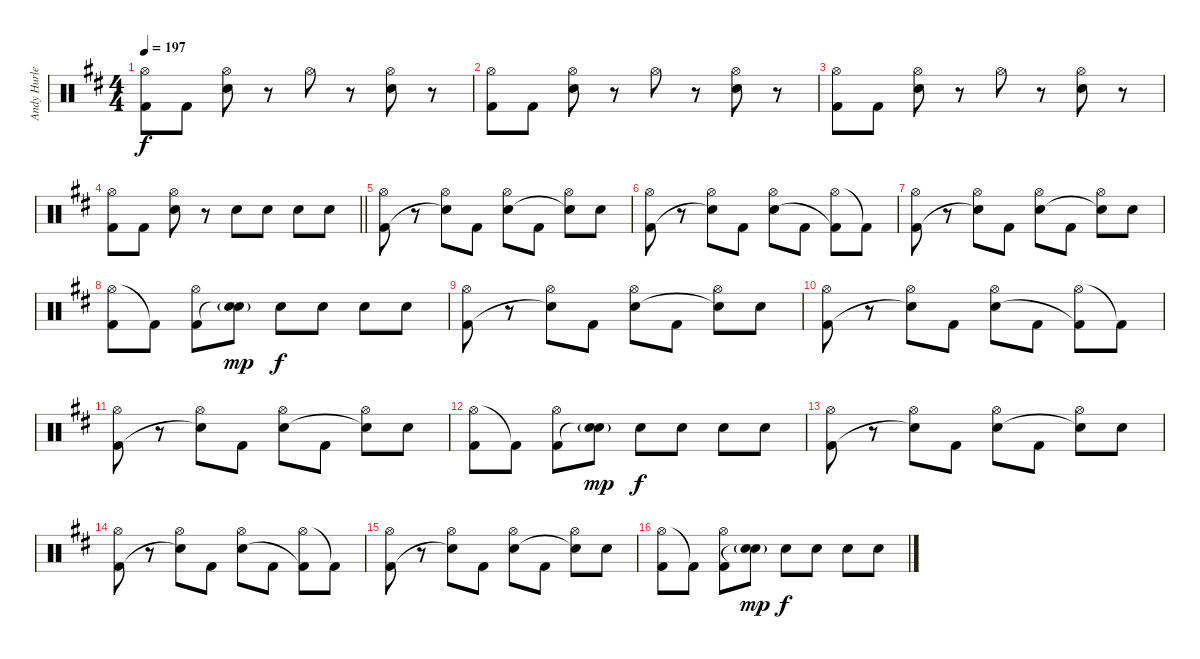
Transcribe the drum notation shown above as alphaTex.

\track ("Andy Hurley (Drums)" "Andy Hurle") {instrument percussion}
\staff {score}
\articulation defaults
\ts (4 4)
\tempo 197
\clef neutral
\ks d
("Hi-Hat (open)" "Kick (hit) 2").8{dy f} "Kick (hit) 2".8 ("Hi-Hat (open)" "Electric Snare (hit)").8 r.8 "Hi-Hat (open)".8 r.8 ("Hi-Hat (open)" "Electric Snare (hit)").8 r.8 |
("Hi-Hat (open)" "Kick (hit) 2").8 "Kick (hit) 2".8 ("Hi-Hat (open)" "Electric Snare (hit)").8 r.8 "Hi-Hat (open)".8 r.8 ("Hi-Hat (open)" "Electric Snare (hit)").8 r.8 |
("Hi-Hat (open)" "Kick (hit) 2").8 "Kick (hit) 2".8 ("Hi-Hat (open)" "Electric Snare (hit)").8 r.8 "Hi-Hat (open)".8 r.8 ("Hi-Hat (open)" "Electric Snare (hit)").8 r.8 |
\barLineRight lightlight
("Hi-Hat (open)" "Kick (hit) 2").8 "Kick (hit) 2".8 ("Hi-Hat (open)" "Electric Snare (hit)").8 r.8 "Electric Snare (hit)".8 "Electric Snare (hit)".8 "Electric Snare (hit)".8 "Electric Snare (hit)".8 |
("Hi-Hat (open)" "Kick (hit) 2").8 r.8 ("Hi-Hat (open)" "Snare (hit)"{t}).8 "Kick (hit) 2".8 ("Hi-Hat (open)" "Electric Snare (hit)").8 "Kick (hit) 2".8 ("Hi-Hat (open)" "Snare (hit)"{t}).8 "Electric Snare (hit)".8 |
("Hi-Hat (open)" "Kick (hit) 2").8 r.8 ("Hi-Hat (open)" "Snare (hit)"{t}).8 "Kick (hit) 2".8 ("Hi-Hat (open)" "Electric Snare (hit)").8 "Kick (hit) 2".8 ("Hi-Hat (open)" "Kick (hit) 2"{t}).8 "Kick (hit) 2"{t}.8 |
("Hi-Hat (open)" "Kick (hit) 2").8 r.8 ("Hi-Hat (open)" "Snare (hit)"{t}).8 "Kick (hit) 2".8 ("Hi-Hat (open)" "Electric Snare (hit)").8 "Kick (hit) 2".8 ("Hi-Hat (open)" "Snare (hit)"{t}).8 "Electric Snare (hit)".8 |
("Hi-Hat (open)" "Kick (hit) 2").8 "Kick (hit) 2"{t}.8 ("Hi-Hat (open)" "Kick (hit) 2").8 ("Electric Snare (hit)"{g} "Snare (hit)"{t}).8{dy mp} "Electric Snare (hit)".8{dy f} "Electric Snare (hit)".8 "Electric Snare (hit)".8 "Electric Snare (hit)".8 |
("Hi-Hat (open)" "Kick (hit) 2").8 r.8 ("Hi-Hat (open)" "Snare (hit)"{t}).8 "Kick (hit) 2".8 ("Hi-Hat (open)" "Electric Snare (hit)").8 "Kick (hit) 2".8 ("Hi-Hat (open)" "Snare (hit)"{t}).8 "Electric Snare (hit)".8 |
("Hi-Hat (open)" "Kick (hit) 2").8 r.8 ("Hi-Hat (open)" "Snare (hit)"{t}).8 "Kick (hit) 2".8 ("Hi-Hat (open)" "Electric Snare (hit)").8 "Kick (hit) 2".8 ("Hi-Hat (open)" "Kick (hit) 2"{t}).8 "Kick (hit) 2"{t}.8 |
("Hi-Hat (open)" "Kick (hit) 2").8 r.8 ("Hi-Hat (open)" "Snare (hit)"{t}).8 "Kick (hit) 2".8 ("Hi-Hat (open)" "Electric Snare (hit)").8 "Kick (hit) 2".8 ("Hi-Hat (open)" "Snare (hit)"{t}).8 "Electric Snare (hit)".8 |
("Hi-Hat (open)" "Kick (hit) 2").8 "Kick (hit) 2"{t}.8 ("Hi-Hat (open)" "Kick (hit) 2").8 ("Electric Snare (hit)"{g} "Snare (hit)"{t}).8{dy mp} "Electric Snare (hit)".8{dy f} "Electric Snare (hit)".8 "Electric Snare (hit)".8 "Electric Snare (hit)".8 |
("Hi-Hat (open)" "Kick (hit) 2").8 r.8 ("Hi-Hat (open)" "Snare (hit)"{t}).8 "Kick (hit) 2".8 ("Hi-Hat (open)" "Electric Snare (hit)").8 "Kick (hit) 2".8 ("Hi-Hat (open)" "Snare (hit)"{t}).8 "Electric Snare (hit)".8 |
("Hi-Hat (open)" "Kick (hit) 2").8 r.8 ("Hi-Hat (open)" "Snare (hit)"{t}).8 "Kick (hit) 2".8 ("Hi-Hat (open)" "Electric Snare (hit)").8 "Kick (hit) 2".8 ("Hi-Hat (open)" "Kick (hit) 2"{t}).8 "Kick (hit) 2"{t}.8 |
("Hi-Hat (open)" "Kick (hit) 2").8 r.8 ("Hi-Hat (open)" "Snare (hit)"{t}).8 "Kick (hit) 2".8 ("Hi-Hat (open)" "Electric Snare (hit)").8 "Kick (hit) 2".8 ("Hi-Hat (open)" "Snare (hit)"{t}).8 "Electric Snare (hit)".8 |
("Hi-Hat (open)" "Kick (hit) 2").8 "Kick (hit) 2"{t}.8 ("Hi-Hat (open)" "Kick (hit) 2").8 ("Electric Snare (hit)"{g} "Snare (hit)"{t}).8{dy mp} "Electric Snare (hit)".8{dy f} "Electric Snare (hit)".8 "Electric Snare (hit)".8 "Electric Snare (hit)".8
